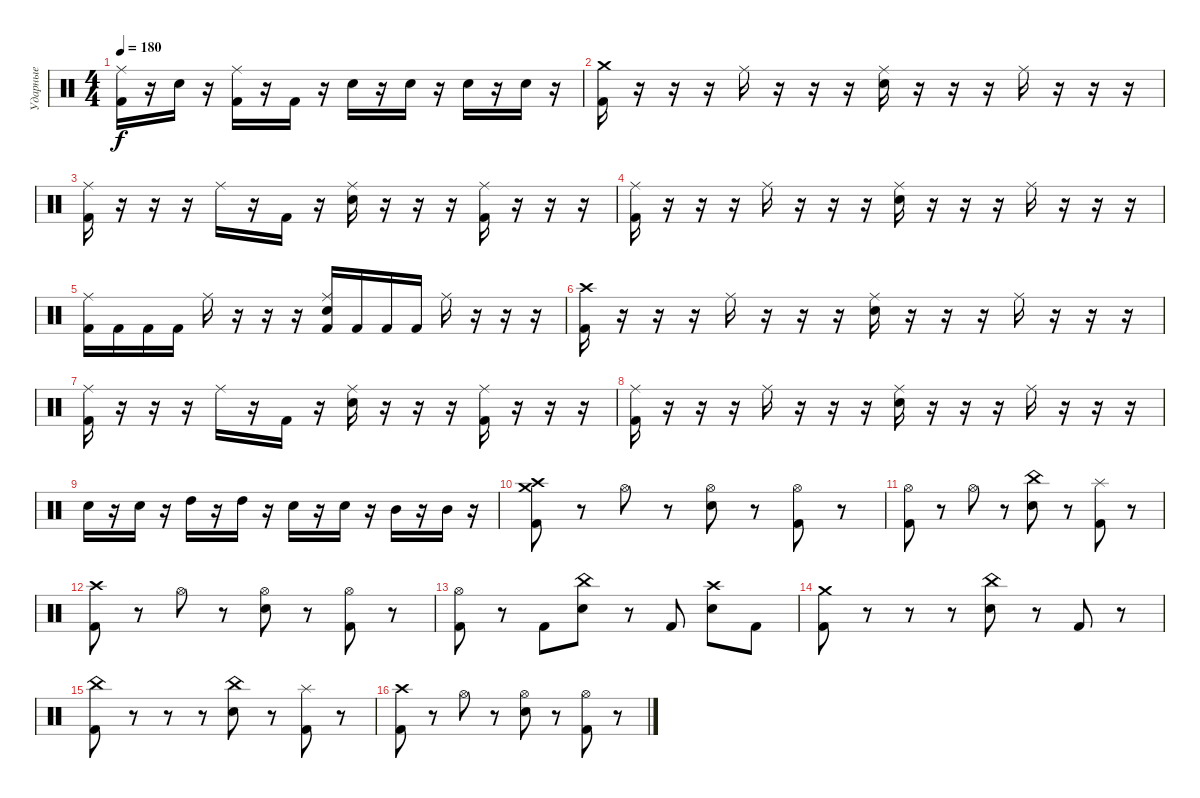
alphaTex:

\track ("Ударные" "Ударные") {instrument percussion}
\staff {score}
\articulation defaults
\ts (4 4)
\tempo 180
\clef neutral
\ks c
("Kick (hit) 2" "Ride (middle)").16{dy f} r.16 "Electric Snare (hit)".16 r.16 ("Kick (hit) 2" "Ride (middle)").16 r.16 "Kick (hit) 2".16 r.16 "Electric Snare (hit)".16 r.16 "Electric Snare (hit)".16 r.16 "Electric Snare (hit)".16 r.16 "Electric Snare (hit)".16 r.16 |
("Kick (hit) 2" "Crash medium (hit)").16 r.16 r.16 r.16 "Ride (middle)".16 r.16 r.16 r.16 ("Electric Snare (hit)" "Ride (middle)").16 r.16 r.16 r.16 "Ride (middle)".16 r.16 r.16 r.16 |
("Kick (hit) 2" "Ride (middle)").16 r.16 r.16 r.16 "Ride (middle)".16 r.16 "Kick (hit) 2".16 r.16 ("Electric Snare (hit)" "Ride (middle)").16 r.16 r.16 r.16 ("Kick (hit) 2" "Ride (middle)").16 r.16 r.16 r.16 |
("Kick (hit) 2" "Ride (middle)").16 r.16 r.16 r.16 "Ride (middle)".16 r.16 r.16 r.16 ("Electric Snare (hit)" "Ride (middle)").16 r.16 r.16 r.16 "Ride (middle)".16 r.16 r.16 r.16 |
("Kick (hit) 2" "Ride (middle)").16 "Kick (hit) 2".16 "Kick (hit) 2".16 "Kick (hit) 2".16 "Ride (middle)".16 r.16 r.16 r.16 ("Kick (hit) 2" "Electric Snare (hit)" "Ride (middle)").16 "Kick (hit) 2".16 "Kick (hit) 2".16 "Kick (hit) 2".16 "Ride (middle)".16 r.16 r.16 r.16 |
("Kick (hit) 2" "Crash high (hit)").16 r.16 r.16 r.16 "Ride (middle)".16 r.16 r.16 r.16 ("Electric Snare (hit)" "Ride (middle)").16 r.16 r.16 r.16 "Ride (middle)".16 r.16 r.16 r.16 |
("Kick (hit) 2" "Ride (middle)").16 r.16 r.16 r.16 "Ride (middle)".16 r.16 "Kick (hit) 2".16 r.16 ("Electric Snare (hit)" "Ride (middle)").16 r.16 r.16 r.16 ("Kick (hit) 2" "Ride (middle)").16 r.16 r.16 r.16 |
("Kick (hit) 2" "Ride (middle)").16 r.16 r.16 r.16 "Ride (middle)".16 r.16 r.16 r.16 ("Electric Snare (hit)" "Ride (middle)").16 r.16 r.16 r.16 "Ride (middle)".16 r.16 r.16 r.16 |
"Electric Snare (hit)".16 r.16 "Electric Snare (hit)".16 r.16 "High Tom (hit)".16 r.16 "High Tom (hit)".16 r.16 "Electric Snare (hit)".16 r.16 "Electric Snare (hit)".16 r.16 "Mid Tom (hit)".16 r.16 "Mid Tom (hit)".16 r.16 |
("Kick (hit) 2" "Crash high (hit)" "Crash medium (hit)").8 r.8 "Hi-Hat (open)".8 r.8 ("Electric Snare (hit)" "Hi-Hat (open)").8 r.8 ("Kick (hit) 2" "Hi-Hat (open)").8 r.8 |
("Kick (hit) 2" "Hi-Hat (open)").8 r.8 "Hi-Hat (open)".8 r.8 ("Electric Snare (hit)" "China (hit)").8 r.8 ("Kick (hit) 2" "Splash (hit)").8 r.8 |
("Kick (hit) 2" "Crash high (hit)").8 r.8 "Hi-Hat (open)".8 r.8 ("Electric Snare (hit)" "Hi-Hat (open)").8 r.8 ("Kick (hit) 2" "Hi-Hat (open)").8 r.8 |
("Kick (hit) 2" "Hi-Hat (open)").8 r.8 "Kick (hit) 2".8 ("Electric Snare (hit)" "China (hit)").8 r.8 "Kick (hit) 2".8 ("Electric Snare (hit)" "Crash high (hit)").8 "Kick (hit) 2".8 |
("Kick (hit) 2" "Crash medium (hit)").8 r.8 r.8 r.8 ("Electric Snare (hit)" "China (hit)").8 r.8 "Kick (hit) 2".8 r.8 |
("Kick (hit) 2" "China (hit)").8 r.8 r.8 r.8 ("Electric Snare (hit)" "China (hit)").8 r.8 ("Kick (hit) 2" "Splash (hit)").8 r.8 |
("Kick (hit) 2" "Crash high (hit)").8 r.8 "Hi-Hat (open)".8 r.8 ("Electric Snare (hit)" "Hi-Hat (open)").8 r.8 ("Kick (hit) 2" "Hi-Hat (open)").8 r.8
